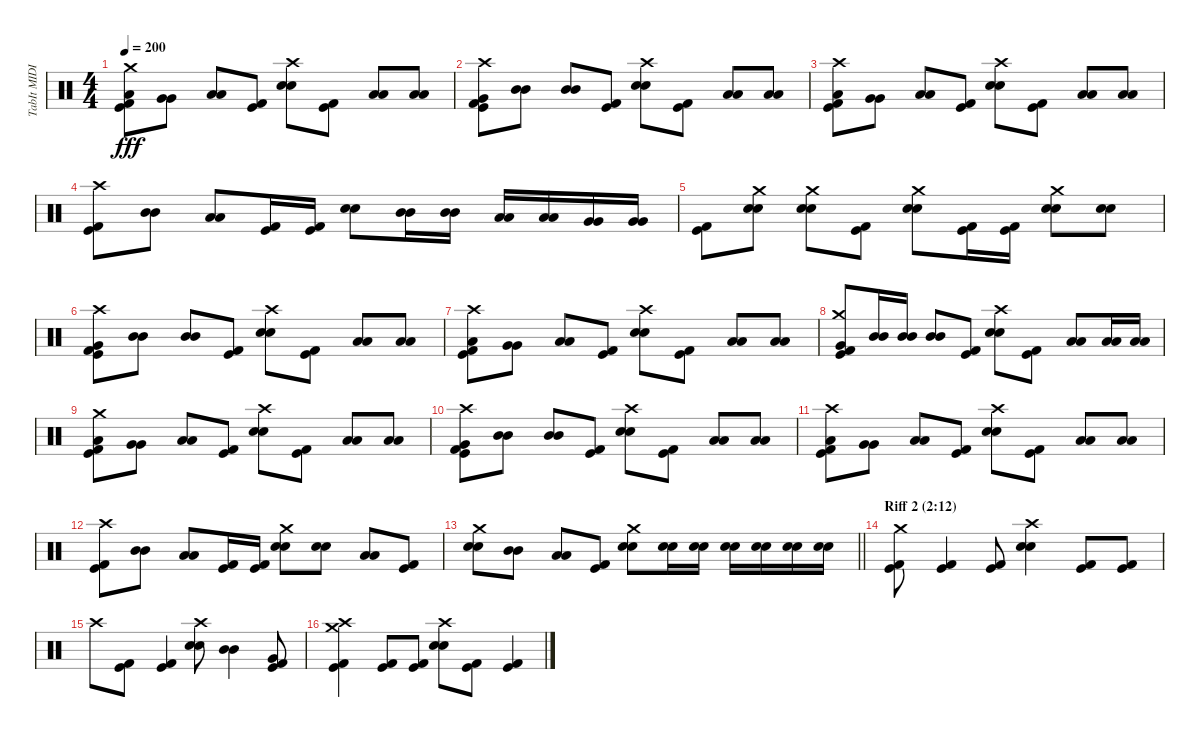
\track ("TabIt MIDI - Track 4" "TabIt MIDI") {instrument percussion}
\staff {score}
\articulation defaults
\ts (4 4)
\tempo 200
\clef neutral
\ks c
("Kick (hit)" "Kick (hit) 2" "Low Floor Tom (hit)" "Crash medium (hit)").8{dy fff} ("Very Low Tom (hit)" "Very Low Tom (hit)").8 ("Low Floor Tom (hit)" "Low Floor Tom (hit)").8 ("Kick (hit)" "Kick (hit) 2").8 ("Electric Snare (hit)" "Electric Snare (hit)" "Crash high (hit)").8 ("Kick (hit)" "Kick (hit) 2").8 ("Low Tom (hit)" "Low Tom (hit)").8 ("Low Tom (hit)" "Low Tom (hit)").8 |
("Kick (hit)" "Kick (hit) 2" "Very Low Tom (hit)" "Crash high (hit)").8 ("Mid Tom (hit)" "Mid Tom (hit)").8 ("Mid Tom (hit)" "Mid Tom (hit)").8 ("Kick (hit)" "Kick (hit) 2").8 ("Electric Snare (hit)" "Electric Snare (hit)" "Crash high (hit)").8 ("Kick (hit)" "Kick (hit) 2").8 ("Low Tom (hit)" "Low Tom (hit)").8 ("Low Tom (hit)" "Low Tom (hit)").8 |
("Kick (hit)" "Kick (hit) 2" "Low Floor Tom (hit)" "Crash high (hit)").8 ("Very Low Tom (hit)" "Very Low Tom (hit)").8 ("Low Floor Tom (hit)" "Low Floor Tom (hit)").8 ("Kick (hit)" "Kick (hit) 2").8 ("Electric Snare (hit)" "Electric Snare (hit)" "Crash high (hit)").8 ("Kick (hit)" "Kick (hit) 2").8 ("Low Tom (hit)" "Low Tom (hit)").8 ("Low Tom (hit)" "Low Tom (hit)").8 |
("Kick (hit)" "Kick (hit) 2" "Crash high (hit)").8 ("Mid Tom (hit)" "Mid Tom (hit)").8 ("Low Tom (hit)" "Low Tom (hit)").8 ("Kick (hit)" "Kick (hit) 2").16 ("Kick (hit)" "Kick (hit) 2").16 ("Electric Snare (hit)" "Electric Snare (hit)").8 ("Mid Tom (hit)" "Mid Tom (hit)").16 ("Mid Tom (hit)" "Mid Tom (hit)").16 ("Low Tom (hit)" "Low Tom (hit)").16 ("Low Tom (hit)" "Low Tom (hit)").16 ("Very Low Tom (hit)" "Very Low Tom (hit)").16 ("Very Low Tom (hit)" "Very Low Tom (hit)").16 |
("Kick (hit)" "Kick (hit) 2").8 ("Electric Snare (hit)" "Electric Snare (hit)" "Crash medium (hit)").8 ("Electric Snare (hit)" "Electric Snare (hit)" "Crash medium (hit)").8 ("Kick (hit)" "Kick (hit) 2").8 ("Electric Snare (hit)" "Electric Snare (hit)" "Crash medium (hit)").8 ("Kick (hit)" "Kick (hit) 2").16 ("Kick (hit)" "Kick (hit) 2").16 ("Electric Snare (hit)" "Electric Snare (hit)" "Crash medium (hit)").8 ("Electric Snare (hit)" "Electric Snare (hit)").8 |
("Kick (hit)" "Kick (hit) 2" "Very Low Tom (hit)" "Crash high (hit)").8 ("Mid Tom (hit)" "Mid Tom (hit)").8 ("Mid Tom (hit)" "Mid Tom (hit)").8 ("Kick (hit)" "Kick (hit) 2").8 ("Electric Snare (hit)" "Electric Snare (hit)" "Crash high (hit)").8 ("Kick (hit)" "Kick (hit) 2").8 ("Low Tom (hit)" "Low Tom (hit)").8 ("Low Tom (hit)" "Low Tom (hit)").8 |
("Kick (hit)" "Kick (hit) 2" "Low Floor Tom (hit)" "Crash high (hit)").8 ("Very Low Tom (hit)" "Very Low Tom (hit)").8 ("Low Floor Tom (hit)" "Low Floor Tom (hit)").8 ("Kick (hit)" "Kick (hit) 2").8 ("Electric Snare (hit)" "Electric Snare (hit)" "Crash high (hit)").8 ("Kick (hit)" "Kick (hit) 2").8 ("Low Tom (hit)" "Low Tom (hit)").8 ("Low Tom (hit)" "Low Tom (hit)").8 |
("Kick (hit)" "Kick (hit) 2" "Very Low Tom (hit)" "Crash medium (hit)").8 ("Mid Tom (hit)" "Mid Tom (hit)").16 ("Mid Tom (hit)" "Mid Tom (hit)").16 ("Mid Tom (hit)" "Mid Tom (hit)").8 ("Kick (hit)" "Kick (hit) 2").8 ("Electric Snare (hit)" "Electric Snare (hit)" "Crash high (hit)").8 ("Kick (hit)" "Kick (hit) 2").8 ("Low Tom (hit)" "Low Tom (hit)").8 ("Low Tom (hit)" "Low Tom (hit)").16 ("Low Tom (hit)" "Low Tom (hit)").16 |
("Kick (hit)" "Kick (hit) 2" "Low Floor Tom (hit)" "Crash medium (hit)").8 ("Very Low Tom (hit)" "Very Low Tom (hit)").8 ("Low Floor Tom (hit)" "Low Floor Tom (hit)").8 ("Kick (hit)" "Kick (hit) 2").8 ("Electric Snare (hit)" "Electric Snare (hit)" "Crash high (hit)").8 ("Kick (hit)" "Kick (hit) 2").8 ("Low Tom (hit)" "Low Tom (hit)").8 ("Low Tom (hit)" "Low Tom (hit)").8 |
("Kick (hit)" "Kick (hit) 2" "Very Low Tom (hit)" "Crash high (hit)").8 ("Mid Tom (hit)" "Mid Tom (hit)").8 ("Mid Tom (hit)" "Mid Tom (hit)").8 ("Kick (hit)" "Kick (hit) 2").8 ("Electric Snare (hit)" "Electric Snare (hit)" "Crash high (hit)").8 ("Kick (hit)" "Kick (hit) 2").8 ("Low Tom (hit)" "Low Tom (hit)").8 ("Low Tom (hit)" "Low Tom (hit)").8 |
("Kick (hit)" "Kick (hit) 2" "Low Floor Tom (hit)" "Crash high (hit)").8 ("Very Low Tom (hit)" "Very Low Tom (hit)").8 ("Low Floor Tom (hit)" "Low Floor Tom (hit)").8 ("Kick (hit)" "Kick (hit) 2").8 ("Electric Snare (hit)" "Electric Snare (hit)" "Crash high (hit)").8 ("Kick (hit)" "Kick (hit) 2").8 ("Low Tom (hit)" "Low Tom (hit)").8 ("Low Tom (hit)" "Low Tom (hit)").8 |
("Kick (hit)" "Kick (hit) 2" "Crash high (hit)").8 ("Mid Tom (hit)" "Mid Tom (hit)").8 ("Low Tom (hit)" "Low Tom (hit)").8 ("Kick (hit)" "Kick (hit) 2").16 ("Kick (hit)" "Kick (hit) 2").16 ("Electric Snare (hit)" "Electric Snare (hit)" "Crash medium (hit)").8 ("Electric Snare (hit)" "Electric Snare (hit)").8 ("Low Tom (hit)" "Low Tom (hit)").8 ("Kick (hit)" "Kick (hit) 2").8 |
\barLineRight lightlight
("Electric Snare (hit)" "Electric Snare (hit)" "Crash medium (hit)").8 ("Mid Tom (hit)" "Mid Tom (hit)").8 ("Low Tom (hit)" "Low Tom (hit)").8 ("Kick (hit)" "Kick (hit) 2").8 ("Electric Snare (hit)" "Electric Snare (hit)" "Crash medium (hit)").8 ("Electric Snare (hit)" "Electric Snare (hit)").16 ("Electric Snare (hit)" "Electric Snare (hit)").16 ("Electric Snare (hit)" "Electric Snare (hit)").16 ("Electric Snare (hit)" "Electric Snare (hit)").16 ("Electric Snare (hit)" "Electric Snare (hit)").16 ("Electric Snare (hit)" "Electric Snare (hit)").16 |
\section ("" "Riff 2 (2:12)")
("Kick (hit)" "Kick (hit) 2" "Crash medium (hit)").8 ("Kick (hit)" "Kick (hit) 2").4 ("Kick (hit)" "Kick (hit) 2").8 ("Electric Snare (hit)" "Electric Snare (hit)" "Crash high (hit)").4 ("Kick (hit)" "Kick (hit) 2").8 ("Kick (hit)" "Kick (hit) 2").8 |
"Crash high (hit)".8 ("Kick (hit)" "Kick (hit) 2").8 ("Kick (hit)" "Kick (hit) 2").4 ("Electric Snare (hit)" "Electric Snare (hit)" "Crash high (hit)").8 ("Mid Tom (hit)" "Mid Tom (hit)").4 ("Kick (hit)" "Kick (hit) 2" "Very Low Tom (hit)").8 |
("Kick (hit)" "Kick (hit) 2" "Crash medium (hit)" "Crash high (hit)").4 ("Kick (hit)" "Kick (hit) 2").8 ("Kick (hit)" "Kick (hit) 2").8 ("Electric Snare (hit)" "Electric Snare (hit)" "Crash high (hit)").8 ("Kick (hit)" "Kick (hit) 2").8 ("Kick (hit)" "Kick (hit) 2").4
